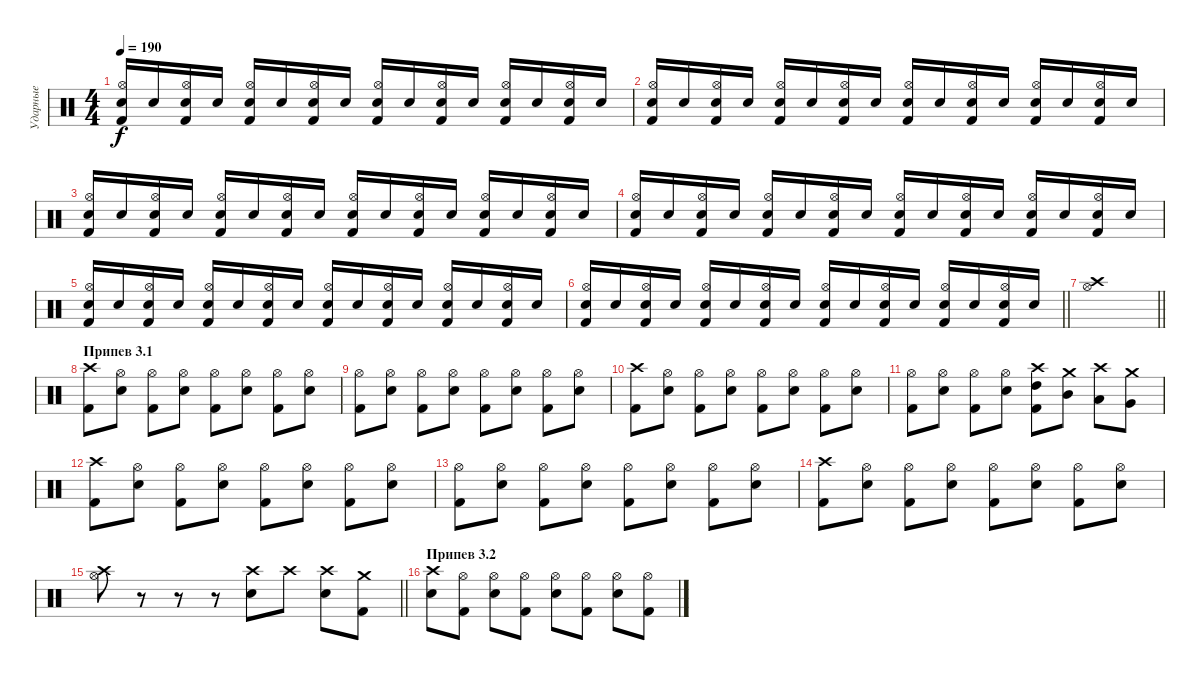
\track ("Ударные" "Ударные") {instrument percussion}
\staff {score}
\articulation defaults
\ts (4 4)
\tempo 190
\clef neutral
\ks c
("Electric Snare (hit)" "Hi-Hat (open)" "Kick (hit) 2").16{dy f} "Snare (hit) 2".16 ("Electric Snare (hit)" "Hi-Hat (open)" "Kick (hit) 2").16 "Snare (hit) 2".16 ("Electric Snare (hit)" "Hi-Hat (open)" "Kick (hit) 2").16 "Snare (hit) 2".16 ("Electric Snare (hit)" "Hi-Hat (open)" "Kick (hit) 2").16 "Snare (hit) 2".16 ("Electric Snare (hit)" "Hi-Hat (open)" "Kick (hit) 2").16 "Snare (hit) 2".16 ("Electric Snare (hit)" "Hi-Hat (open)" "Kick (hit) 2").16 "Snare (hit) 2".16 ("Electric Snare (hit)" "Hi-Hat (open)" "Kick (hit) 2").16 "Snare (hit) 2".16 ("Electric Snare (hit)" "Hi-Hat (open)" "Kick (hit) 2").16 "Snare (hit) 2".16 |
("Electric Snare (hit)" "Hi-Hat (open)" "Kick (hit) 2").16 "Snare (hit) 2".16 ("Electric Snare (hit)" "Hi-Hat (open)" "Kick (hit) 2").16 "Snare (hit) 2".16 ("Electric Snare (hit)" "Hi-Hat (open)" "Kick (hit) 2").16 "Snare (hit) 2".16 ("Electric Snare (hit)" "Hi-Hat (open)" "Kick (hit) 2").16 "Snare (hit) 2".16 ("Electric Snare (hit)" "Hi-Hat (open)" "Kick (hit) 2").16 "Snare (hit) 2".16 ("Electric Snare (hit)" "Hi-Hat (open)" "Kick (hit) 2").16 "Snare (hit) 2".16 ("Electric Snare (hit)" "Hi-Hat (open)" "Kick (hit) 2").16 "Snare (hit) 2".16 ("Electric Snare (hit)" "Hi-Hat (open)" "Kick (hit) 2").16 "Snare (hit) 2".16 |
("Electric Snare (hit)" "Hi-Hat (open)" "Kick (hit) 2").16 "Snare (hit) 2".16 ("Electric Snare (hit)" "Hi-Hat (open)" "Kick (hit) 2").16 "Snare (hit) 2".16 ("Electric Snare (hit)" "Hi-Hat (open)" "Kick (hit) 2").16 "Snare (hit) 2".16 ("Electric Snare (hit)" "Hi-Hat (open)" "Kick (hit) 2").16 "Snare (hit) 2".16 ("Electric Snare (hit)" "Hi-Hat (open)" "Kick (hit) 2").16 "Snare (hit) 2".16 ("Electric Snare (hit)" "Hi-Hat (open)" "Kick (hit) 2").16 "Snare (hit) 2".16 ("Electric Snare (hit)" "Hi-Hat (open)" "Kick (hit) 2").16 "Snare (hit) 2".16 ("Electric Snare (hit)" "Hi-Hat (open)" "Kick (hit) 2").16 "Snare (hit) 2".16 |
("Electric Snare (hit)" "Hi-Hat (open)" "Kick (hit) 2").16 "Snare (hit) 2".16 ("Electric Snare (hit)" "Hi-Hat (open)" "Kick (hit) 2").16 "Snare (hit) 2".16 ("Electric Snare (hit)" "Hi-Hat (open)" "Kick (hit) 2").16 "Snare (hit) 2".16 ("Electric Snare (hit)" "Hi-Hat (open)" "Kick (hit) 2").16 "Snare (hit) 2".16 ("Electric Snare (hit)" "Hi-Hat (open)" "Kick (hit) 2").16 "Snare (hit) 2".16 ("Electric Snare (hit)" "Hi-Hat (open)" "Kick (hit) 2").16 "Snare (hit) 2".16 ("Electric Snare (hit)" "Hi-Hat (open)" "Kick (hit) 2").16 "Snare (hit) 2".16 ("Electric Snare (hit)" "Hi-Hat (open)" "Kick (hit) 2").16 "Snare (hit) 2".16 |
("Electric Snare (hit)" "Hi-Hat (open)" "Kick (hit) 2").16 "Snare (hit) 2".16 ("Electric Snare (hit)" "Hi-Hat (open)" "Kick (hit) 2").16 "Snare (hit) 2".16 ("Electric Snare (hit)" "Hi-Hat (open)" "Kick (hit) 2").16 "Snare (hit) 2".16 ("Electric Snare (hit)" "Hi-Hat (open)" "Kick (hit) 2").16 "Snare (hit) 2".16 ("Electric Snare (hit)" "Hi-Hat (open)" "Kick (hit) 2").16 "Snare (hit) 2".16 ("Electric Snare (hit)" "Hi-Hat (open)" "Kick (hit) 2").16 "Snare (hit) 2".16 ("Electric Snare (hit)" "Hi-Hat (open)" "Kick (hit) 2").16 "Snare (hit) 2".16 ("Electric Snare (hit)" "Hi-Hat (open)" "Kick (hit) 2").16 "Snare (hit) 2".16 |
\barLineRight lightlight
("Electric Snare (hit)" "Hi-Hat (open)" "Kick (hit) 2").16 "Snare (hit) 2".16 ("Electric Snare (hit)" "Hi-Hat (open)" "Kick (hit) 2").16 "Snare (hit) 2".16 ("Electric Snare (hit)" "Hi-Hat (open)" "Kick (hit) 2").16 "Snare (hit) 2".16 ("Electric Snare (hit)" "Hi-Hat (open)" "Kick (hit) 2").16 "Snare (hit) 2".16 ("Electric Snare (hit)" "Hi-Hat (open)" "Kick (hit) 2").16 "Snare (hit) 2".16 ("Electric Snare (hit)" "Hi-Hat (open)" "Kick (hit) 2").16 "Snare (hit) 2".16 ("Electric Snare (hit)" "Hi-Hat (open)" "Kick (hit) 2").16 "Snare (hit) 2".16 ("Electric Snare (hit)" "Hi-Hat (open)" "Kick (hit) 2").16 "Snare (hit) 2".16 |
\section ("" "")
\barLineRight lightlight
("Crash high (hit)" "Hi-Hat (open)").1 |
\section ("" "Припев 3.1")
("Crash high (hit)" "Kick (hit) 2").8 ("Hi-Hat (open)" "Snare (hit) 2").8 ("Hi-Hat (open)" "Kick (hit) 2").8 ("Hi-Hat (open)" "Snare (hit) 2").8 ("Hi-Hat (open)" "Kick (hit) 2").8 ("Hi-Hat (open)" "Snare (hit) 2").8 ("Hi-Hat (open)" "Kick (hit) 2").8 ("Hi-Hat (open)" "Snare (hit) 2").8 |
("Hi-Hat (open)" "Kick (hit) 2").8 ("Hi-Hat (open)" "Snare (hit) 2").8 ("Hi-Hat (open)" "Kick (hit) 2").8 ("Hi-Hat (open)" "Snare (hit) 2").8 ("Hi-Hat (open)" "Kick (hit) 2").8 ("Hi-Hat (open)" "Snare (hit) 2").8 ("Hi-Hat (open)" "Kick (hit) 2").8 ("Hi-Hat (open)" "Snare (hit) 2").8 |
("Crash high (hit)" "Kick (hit) 2").8 ("Hi-Hat (open)" "Snare (hit) 2").8 ("Hi-Hat (open)" "Kick (hit) 2").8 ("Hi-Hat (open)" "Snare (hit) 2").8 ("Hi-Hat (open)" "Kick (hit) 2").8 ("Hi-Hat (open)" "Snare (hit) 2").8 ("Hi-Hat (open)" "Kick (hit) 2").8 ("Hi-Hat (open)" "Snare (hit) 2").8 |
("Hi-Hat (open)" "Kick (hit) 2").8 ("Hi-Hat (open)" "Snare (hit) 2").8 ("Hi-Hat (open)" "Kick (hit) 2").8 ("Hi-Hat (open)" "Snare (hit) 2").8 ("Crash high (hit)" "High Tom (hit)" "Kick (hit) 2").8 ("Crash medium (hit)" "Mid Tom (hit)").8 ("Crash high (hit)" "Low Tom (hit)").8 ("Crash medium (hit)" "Very Low Tom (hit)").8 |
("Crash high (hit)" "Kick (hit) 2").8 ("Hi-Hat (open)" "Snare (hit) 2").8 ("Hi-Hat (open)" "Kick (hit) 2").8 ("Hi-Hat (open)" "Snare (hit) 2").8 ("Hi-Hat (open)" "Kick (hit) 2").8 ("Hi-Hat (open)" "Snare (hit) 2").8 ("Hi-Hat (open)" "Kick (hit) 2").8 ("Hi-Hat (open)" "Snare (hit) 2").8 |
("Hi-Hat (open)" "Kick (hit) 2").8 ("Hi-Hat (open)" "Snare (hit) 2").8 ("Hi-Hat (open)" "Kick (hit) 2").8 ("Hi-Hat (open)" "Snare (hit) 2").8 ("Hi-Hat (open)" "Kick (hit) 2").8 ("Hi-Hat (open)" "Snare (hit) 2").8 ("Hi-Hat (open)" "Kick (hit) 2").8 ("Hi-Hat (open)" "Snare (hit) 2").8 |
("Crash high (hit)" "Kick (hit) 2").8 ("Hi-Hat (open)" "Snare (hit) 2").8 ("Hi-Hat (open)" "Kick (hit) 2").8 ("Hi-Hat (open)" "Snare (hit) 2").8 ("Hi-Hat (open)" "Kick (hit) 2").8 ("Hi-Hat (open)" "Snare (hit) 2").8 ("Hi-Hat (open)" "Kick (hit) 2").8 ("Hi-Hat (open)" "Snare (hit) 2").8 |
\barLineRight lightlight
("Hi-Hat (open)" "Crash high (hit)").8 r.8 r.8 r.8 ("Snare (hit) 2" "Crash high (hit)").8 "Crash high (hit)".8 ("Snare (hit) 2" "Crash high (hit)").8 ("Kick (hit) 2" "Crash medium (hit)").8 |
\section ("" "Припев 3.2")
("Crash high (hit)" "Snare (hit) 2").8 ("Hi-Hat (open)" "Kick (hit) 2").8 ("Hi-Hat (open)" "Snare (hit) 2").8 ("Hi-Hat (open)" "Kick (hit) 2").8 ("Hi-Hat (open)" "Snare (hit) 2").8 ("Hi-Hat (open)" "Kick (hit) 2").8 ("Hi-Hat (open)" "Snare (hit) 2").8 ("Hi-Hat (open)" "Kick (hit) 2").8
